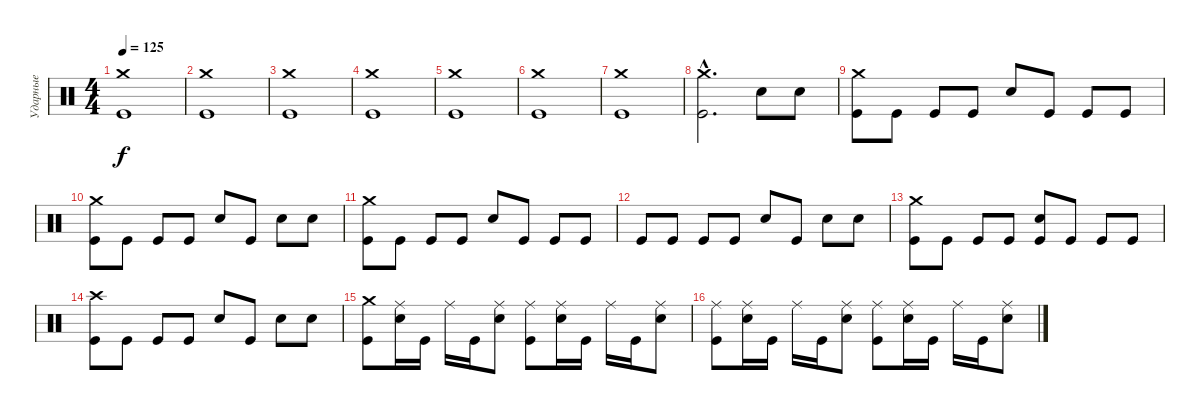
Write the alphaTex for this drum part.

\track ("Ударные" "Ударные") {instrument percussion}
\staff {score}
\articulation defaults
\ts (4 4)
\tempo 125
\clef neutral
\ks c
("Crash medium (hit)" "Kick (hit)").1{dy f} |
("Crash medium (hit)" "Kick (hit)").1 |
("Crash medium (hit)" "Kick (hit)").1 |
("Crash medium (hit)" "Kick (hit)").1 |
("Crash medium (hit)" "Kick (hit)").1 |
("Crash medium (hit)" "Kick (hit)").1 |
("Crash medium (hit)" "Kick (hit)").1 |
("Crash medium (hit)"{hac} "Kick (hit)"{hac}).2{d} "Electric Snare (hit)".8 "Electric Snare (hit)".8 |
("Crash medium (hit)" "Kick (hit)").8 "Kick (hit)".8 "Kick (hit)".8 "Kick (hit)".8 "Electric Snare (hit)".8 "Kick (hit)".8 "Kick (hit)".8 "Kick (hit)".8 |
("Crash medium (hit)" "Kick (hit)").8 "Kick (hit)".8 "Kick (hit)".8 "Kick (hit)".8 "Electric Snare (hit)".8 "Kick (hit)".8 "Electric Snare (hit)".8 "Electric Snare (hit)".8 |
("Crash medium (hit)" "Kick (hit)").8 "Kick (hit)".8 "Kick (hit)".8 "Kick (hit)".8 "Electric Snare (hit)".8 "Kick (hit)".8 "Kick (hit)".8 "Kick (hit)".8 |
"Kick (hit)".8 "Kick (hit)".8 "Kick (hit)".8 "Kick (hit)".8 "Electric Snare (hit)".8 "Kick (hit)".8 "Electric Snare (hit)".8 "Electric Snare (hit)".8 |
("Crash medium (hit)" "Kick (hit)").8 "Kick (hit)".8 "Kick (hit)".8 "Kick (hit)".8 ("Electric Snare (hit)" "Kick (hit)").8 "Kick (hit)".8 "Kick (hit)".8 "Kick (hit)".8 |
("Crash high (hit)" "Kick (hit)").8 "Kick (hit)".8 "Kick (hit)".8 "Kick (hit)".8 "Electric Snare (hit)".8 "Kick (hit)".8 "Electric Snare (hit)".8 "Electric Snare (hit)".8 |
("Crash medium (hit)" "Kick (hit)").8 ("Ride (middle)" "Electric Snare (hit)").16 "Kick (hit)".16 "Ride (middle)".16 "Kick (hit)".16 ("Ride (middle)" "Electric Snare (hit)").8 ("Ride (middle)" "Kick (hit)").8 ("Ride (middle)" "Electric Snare (hit)").16 "Kick (hit)".16 "Ride (middle)".16 "Kick (hit)".16 ("Ride (middle)" "Electric Snare (hit)").8 |
("Ride (middle)" "Kick (hit)").8 ("Ride (middle)" "Electric Snare (hit)").16 "Kick (hit)".16 "Ride (middle)".16 "Kick (hit)".16 ("Ride (middle)" "Electric Snare (hit)").8 ("Ride (middle)" "Kick (hit)").8 ("Ride (middle)" "Electric Snare (hit)").16 "Kick (hit)".16 "Ride (middle)".16 "Kick (hit)".16 ("Ride (middle)" "Electric Snare (hit)").8
